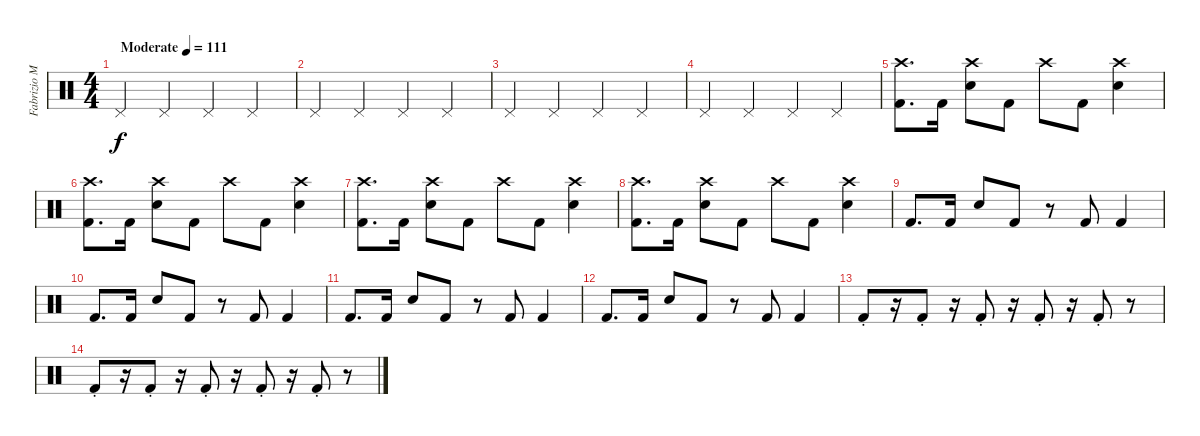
\track ("Fabrizio Moretti" "Fabrizio M") {instrument percussion}
\staff {score}
\articulation defaults
\ts (4 4)
\tempo (111 "Moderate")
\clef neutral
\ks c "Pedal Hi-Hat (hit)".4{dy f} "Pedal Hi-Hat (hit)".4 "Pedal Hi-Hat (hit)".4 "Pedal Hi-Hat (hit)".4
|
"Pedal Hi-Hat (hit)".4 "Pedal Hi-Hat (hit)".4 "Pedal Hi-Hat (hit)".4 "Pedal Hi-Hat (hit)".4 |
"Pedal Hi-Hat (hit)".4 "Pedal Hi-Hat (hit)".4 "Pedal Hi-Hat (hit)".4 "Pedal Hi-Hat (hit)".4 |
"Pedal Hi-Hat (hit)".4 "Pedal Hi-Hat (hit)".4 "Pedal Hi-Hat (hit)".4 "Pedal Hi-Hat (hit)".4 |
("Crash high (hit)" "Kick (hit) 2").8{d} "Kick (hit) 2".16 ("Crash high (hit)" "Snare (hit) 2").8 "Kick (hit) 2".8 "Crash high (hit)".8 "Kick (hit) 2".8 ("Crash high (hit)" "Snare (hit) 2").4 |
("Crash high (hit)" "Kick (hit) 2").8{d} "Kick (hit) 2".16 ("Crash high (hit)" "Snare (hit) 2").8 "Kick (hit) 2".8 "Crash high (hit)".8 "Kick (hit) 2".8 ("Crash high (hit)" "Snare (hit) 2").4 |
("Crash high (hit)" "Kick (hit) 2").8{d} "Kick (hit) 2".16 ("Crash high (hit)" "Snare (hit) 2").8 "Kick (hit) 2".8 "Crash high (hit)".8 "Kick (hit) 2".8 ("Crash high (hit)" "Snare (hit) 2").4 |
("Crash high (hit)" "Kick (hit) 2").8{d} "Kick (hit) 2".16 ("Crash high (hit)" "Snare (hit) 2").8 "Kick (hit) 2".8 "Crash high (hit)".8 "Kick (hit) 2".8 ("Crash high (hit)" "Snare (hit) 2").4 |
"Kick (hit) 2".8{d} "Kick (hit) 2".16 "Snare (hit) 2".8 "Kick (hit) 2".8 r.8 "Kick (hit) 2".8 "Kick (hit) 2".4 |
"Kick (hit) 2".8{d} "Kick (hit) 2".16 "Snare (hit) 2".8 "Kick (hit) 2".8 r.8 "Kick (hit) 2".8 "Kick (hit) 2".4 |
"Kick (hit) 2".8{d} "Kick (hit) 2".16 "Snare (hit) 2".8 "Kick (hit) 2".8 r.8 "Kick (hit) 2".8 "Kick (hit) 2".4 |
"Kick (hit) 2".8{d} "Kick (hit) 2".16 "Snare (hit) 2".8 "Kick (hit) 2".8 r.8 "Kick (hit) 2".8 "Kick (hit) 2".4 |
"Kick (hit) 2"{st}.8 r.16 "Kick (hit) 2"{st}.8 r.16 "Kick (hit) 2"{st}.8 r.16 "Kick (hit) 2"{st}.8 r.16 "Kick (hit) 2"{st}.8 r.8 |
"Kick (hit) 2"{st}.8 r.16 "Kick (hit) 2"{st}.8 r.16 "Kick (hit) 2"{st}.8 r.16 "Kick (hit) 2"{st}.8 r.16 "Kick (hit) 2"{st}.8 r.8
